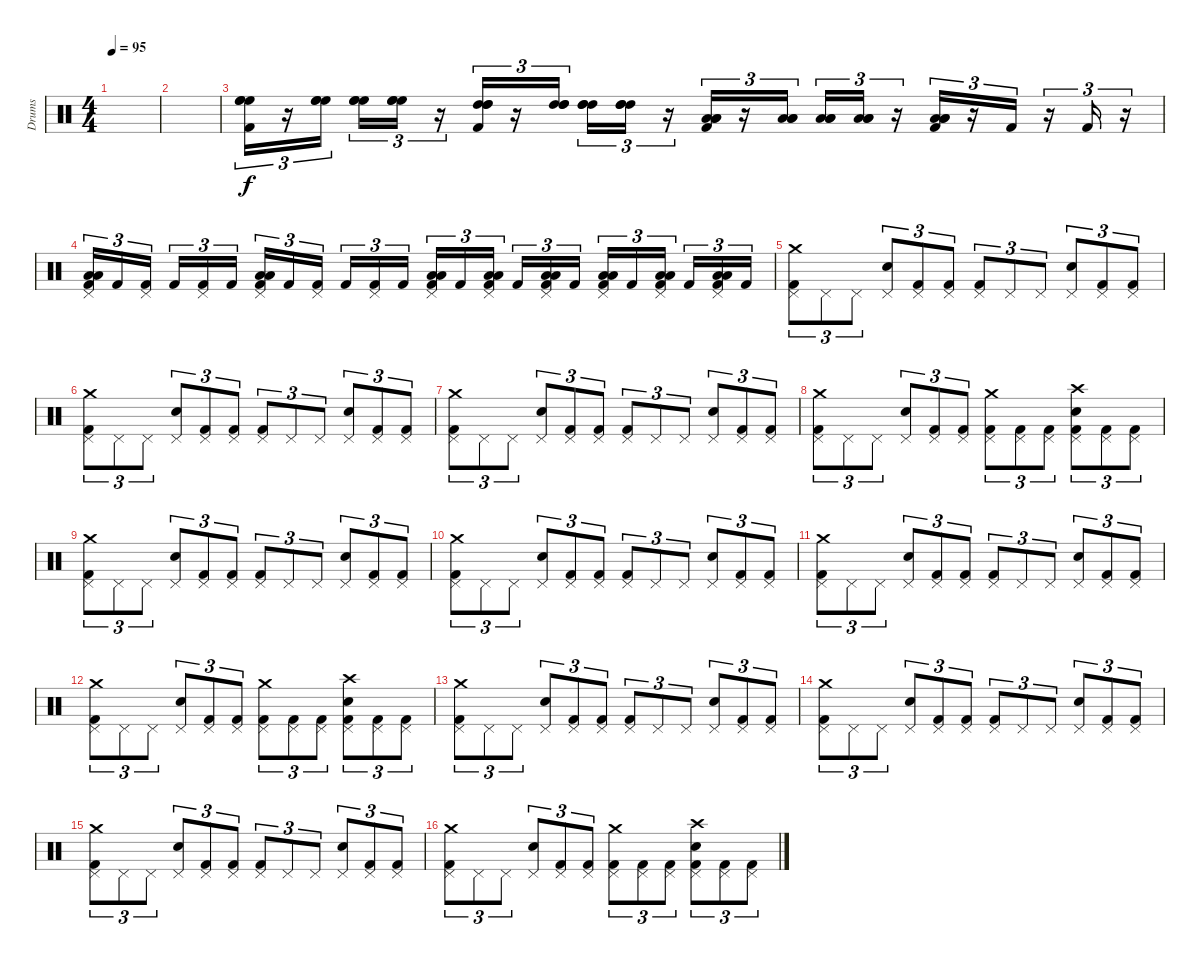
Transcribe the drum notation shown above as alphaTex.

\track ("Drums" "Drums") {instrument percussion}
\staff {score}
\articulation defaults
\ts (4 4)
\tempo 95
\clef neutral
\ks c
|
|
("Kick (hit) 2" "High Floor Tom (hit)" "High Floor Tom (hit)" "High Floor Tom (hit)").16{tu (3 2)} r.16{tu (3 2)} ("High Floor Tom (hit)" "High Floor Tom (hit)" "High Floor Tom (hit)").16{tu (3 2) beam splitsecondary} ("High Floor Tom (hit)" "High Floor Tom (hit)" "High Floor Tom (hit)").16{tu (3 2)} ("High Floor Tom (hit)" "High Floor Tom (hit)" "High Floor Tom (hit)").16{tu (3 2)} r.16{tu (3 2)} ("Kick (hit) 2" "High Tom (hit)" "High Tom (hit)" "High Tom (hit)").16{tu (3 2)} r.16{tu (3 2)} ("High Tom (hit)" "High Tom (hit)" "High Tom (hit)").16{tu (3 2) beam splitsecondary} ("High Tom (hit)" "High Tom (hit)" "High Tom (hit)").16{tu (3 2)} ("High Tom (hit)" "High Tom (hit)" "High Tom (hit)").16{tu (3 2)} r.16{tu (3 2)} ("Kick (hit) 2" "Low Tom (hit)" "Low Tom (hit)" "Low Tom (hit)").16{tu (3 2)} r.16{tu (3 2)} ("Low Tom (hit)" "Low Tom (hit)" "Low Tom (hit)").16{tu (3 2) beam splitsecondary} ("Low Tom (hit)" "Low Tom (hit)" "Low Tom (hit)").16{tu (3 2)} ("Low Tom (hit)" "Low Tom (hit)" "Low Tom (hit)").16{tu (3 2)} r.16{tu (3 2)} ("Kick (hit) 2" "Low Floor Tom (hit)" "Low Floor Tom (hit)" "Low Floor Tom (hit)").16{tu (3 2)} r.16{tu (3 2)} "Kick (hit) 2".16{tu (3 2)} r.16{tu (3 2)} "Kick (hit) 2".16{tu (3 2)} r.16{tu (3 2)} |
("Kick (hit) 2" "Low Tom (hit)" "Low Tom (hit)" "Pedal Hi-Hat (hit)").16{tu (3 2)} "Kick (hit) 2".16{tu (3 2)} ("Kick (hit) 2" "Pedal Hi-Hat (hit)").16{tu (3 2) beam splitsecondary} "Kick (hit) 2".16{tu (3 2)} ("Kick (hit) 2" "Pedal Hi-Hat (hit)").16{tu (3 2)} "Kick (hit) 2".16{tu (3 2)} ("Kick (hit) 2" "Low Tom (hit)" "Low Tom (hit)" "Pedal Hi-Hat (hit)").16{tu (3 2)} "Kick (hit) 2".16{tu (3 2)} ("Kick (hit) 2" "Pedal Hi-Hat (hit)").16{tu (3 2) beam splitsecondary} "Kick (hit) 2".16{tu (3 2)} ("Kick (hit) 2" "Pedal Hi-Hat (hit)").16{tu (3 2)} "Kick (hit) 2".16{tu (3 2)} ("Kick (hit) 2" "Low Tom (hit)" "Low Tom (hit)" "Pedal Hi-Hat (hit)").16{tu (3 2)} "Kick (hit) 2".16{tu (3 2)} ("Kick (hit) 2" "Low Tom (hit)" "Low Tom (hit)" "Pedal Hi-Hat (hit)").16{tu (3 2) beam splitsecondary} "Kick (hit) 2".16{tu (3 2)} ("Kick (hit) 2" "Low Tom (hit)" "Low Tom (hit)" "Pedal Hi-Hat (hit)").16{tu (3 2)} "Kick (hit) 2".16{tu (3 2)} ("Kick (hit) 2" "Low Floor Tom (hit)" "Low Floor Tom (hit)" "Pedal Hi-Hat (hit)").16{tu (3 2)} "Kick (hit) 2".16{tu (3 2)} ("Kick (hit) 2" "Low Floor Tom (hit)" "Low Floor Tom (hit)" "Pedal Hi-Hat (hit)").16{tu (3 2) beam splitsecondary} "Kick (hit) 2".16{tu (3 2)} ("Kick (hit) 2" "Low Floor Tom (hit)" "Low Floor Tom (hit)" "Pedal Hi-Hat (hit)").16{tu (3 2)} "Kick (hit) 2".16{tu (3 2)} |
("Kick (hit) 2" "Crash medium (hit)" "Pedal Hi-Hat (hit)").8{tu (3 2)} "Pedal Hi-Hat (hit)".8{tu (3 2)} "Pedal Hi-Hat (hit)".8{tu (3 2)} ("Snare (hit) 2" "Pedal Hi-Hat (hit)").8{tu (3 2)} ("Kick (hit) 2" "Pedal Hi-Hat (hit)").8{tu (3 2)} ("Kick (hit) 2" "Pedal Hi-Hat (hit)").8{tu (3 2)} ("Kick (hit) 2" "Pedal Hi-Hat (hit)").8{tu (3 2)} "Pedal Hi-Hat (hit)".8{tu (3 2)} "Pedal Hi-Hat (hit)".8{tu (3 2)} ("Snare (hit) 2" "Pedal Hi-Hat (hit)").8{tu (3 2)} ("Kick (hit) 2" "Pedal Hi-Hat (hit)").8{tu (3 2)} ("Kick (hit) 2" "Pedal Hi-Hat (hit)").8{tu (3 2)} |
("Kick (hit) 2" "Crash medium (hit)" "Pedal Hi-Hat (hit)").8{tu (3 2)} "Pedal Hi-Hat (hit)".8{tu (3 2)} "Pedal Hi-Hat (hit)".8{tu (3 2)} ("Snare (hit) 2" "Pedal Hi-Hat (hit)").8{tu (3 2)} ("Kick (hit) 2" "Pedal Hi-Hat (hit)").8{tu (3 2)} ("Kick (hit) 2" "Pedal Hi-Hat (hit)").8{tu (3 2)} ("Kick (hit) 2" "Pedal Hi-Hat (hit)").8{tu (3 2)} "Pedal Hi-Hat (hit)".8{tu (3 2)} "Pedal Hi-Hat (hit)".8{tu (3 2)} ("Snare (hit) 2" "Pedal Hi-Hat (hit)").8{tu (3 2)} ("Kick (hit) 2" "Pedal Hi-Hat (hit)").8{tu (3 2)} ("Kick (hit) 2" "Pedal Hi-Hat (hit)").8{tu (3 2)} |
("Kick (hit) 2" "Crash medium (hit)" "Pedal Hi-Hat (hit)").8{tu (3 2)} "Pedal Hi-Hat (hit)".8{tu (3 2)} "Pedal Hi-Hat (hit)".8{tu (3 2)} ("Snare (hit) 2" "Pedal Hi-Hat (hit)").8{tu (3 2)} ("Kick (hit) 2" "Pedal Hi-Hat (hit)").8{tu (3 2)} ("Kick (hit) 2" "Pedal Hi-Hat (hit)").8{tu (3 2)} ("Kick (hit) 2" "Pedal Hi-Hat (hit)").8{tu (3 2)} "Pedal Hi-Hat (hit)".8{tu (3 2)} "Pedal Hi-Hat (hit)".8{tu (3 2)} ("Snare (hit) 2" "Pedal Hi-Hat (hit)").8{tu (3 2)} ("Kick (hit) 2" "Pedal Hi-Hat (hit)").8{tu (3 2)} ("Kick (hit) 2" "Pedal Hi-Hat (hit)").8{tu (3 2)} |
("Kick (hit) 2" "Crash medium (hit)" "Pedal Hi-Hat (hit)").8{tu (3 2)} "Pedal Hi-Hat (hit)".8{tu (3 2)} "Pedal Hi-Hat (hit)".8{tu (3 2)} ("Snare (hit) 2" "Pedal Hi-Hat (hit)").8{tu (3 2)} ("Kick (hit) 2" "Pedal Hi-Hat (hit)").8{tu (3 2)} ("Kick (hit) 2" "Pedal Hi-Hat (hit)").8{tu (3 2)} ("Kick (hit) 2" "Crash medium (hit)" "Pedal Hi-Hat (hit)").8{tu (3 2)} ("Kick (hit) 2" "Pedal Hi-Hat (hit)").8{tu (3 2)} ("Kick (hit) 2" "Pedal Hi-Hat (hit)").8{tu (3 2)} ("Kick (hit) 2" "Crash high (hit)" "Snare (hit) 2" "Pedal Hi-Hat (hit)").8{tu (3 2)} ("Kick (hit) 2" "Pedal Hi-Hat (hit)").8{tu (3 2)} ("Kick (hit) 2" "Pedal Hi-Hat (hit)").8{tu (3 2)} |
("Kick (hit) 2" "Crash medium (hit)" "Pedal Hi-Hat (hit)").8{tu (3 2)} "Pedal Hi-Hat (hit)".8{tu (3 2)} "Pedal Hi-Hat (hit)".8{tu (3 2)} ("Snare (hit) 2" "Pedal Hi-Hat (hit)").8{tu (3 2)} ("Kick (hit) 2" "Pedal Hi-Hat (hit)").8{tu (3 2)} ("Kick (hit) 2" "Pedal Hi-Hat (hit)").8{tu (3 2)} ("Kick (hit) 2" "Pedal Hi-Hat (hit)").8{tu (3 2)} "Pedal Hi-Hat (hit)".8{tu (3 2)} "Pedal Hi-Hat (hit)".8{tu (3 2)} ("Snare (hit) 2" "Pedal Hi-Hat (hit)").8{tu (3 2)} ("Kick (hit) 2" "Pedal Hi-Hat (hit)").8{tu (3 2)} ("Kick (hit) 2" "Pedal Hi-Hat (hit)").8{tu (3 2)} |
("Kick (hit) 2" "Crash medium (hit)" "Pedal Hi-Hat (hit)").8{tu (3 2)} "Pedal Hi-Hat (hit)".8{tu (3 2)} "Pedal Hi-Hat (hit)".8{tu (3 2)} ("Snare (hit) 2" "Pedal Hi-Hat (hit)").8{tu (3 2)} ("Kick (hit) 2" "Pedal Hi-Hat (hit)").8{tu (3 2)} ("Kick (hit) 2" "Pedal Hi-Hat (hit)").8{tu (3 2)} ("Kick (hit) 2" "Pedal Hi-Hat (hit)").8{tu (3 2)} "Pedal Hi-Hat (hit)".8{tu (3 2)} "Pedal Hi-Hat (hit)".8{tu (3 2)} ("Snare (hit) 2" "Pedal Hi-Hat (hit)").8{tu (3 2)} ("Kick (hit) 2" "Pedal Hi-Hat (hit)").8{tu (3 2)} ("Kick (hit) 2" "Pedal Hi-Hat (hit)").8{tu (3 2)} |
("Kick (hit) 2" "Crash medium (hit)" "Pedal Hi-Hat (hit)").8{tu (3 2)} "Pedal Hi-Hat (hit)".8{tu (3 2)} "Pedal Hi-Hat (hit)".8{tu (3 2)} ("Snare (hit) 2" "Pedal Hi-Hat (hit)").8{tu (3 2)} ("Kick (hit) 2" "Pedal Hi-Hat (hit)").8{tu (3 2)} ("Kick (hit) 2" "Pedal Hi-Hat (hit)").8{tu (3 2)} ("Kick (hit) 2" "Pedal Hi-Hat (hit)").8{tu (3 2)} "Pedal Hi-Hat (hit)".8{tu (3 2)} "Pedal Hi-Hat (hit)".8{tu (3 2)} ("Snare (hit) 2" "Pedal Hi-Hat (hit)").8{tu (3 2)} ("Kick (hit) 2" "Pedal Hi-Hat (hit)").8{tu (3 2)} ("Kick (hit) 2" "Pedal Hi-Hat (hit)").8{tu (3 2)} |
("Kick (hit) 2" "Crash medium (hit)" "Pedal Hi-Hat (hit)").8{tu (3 2)} "Pedal Hi-Hat (hit)".8{tu (3 2)} "Pedal Hi-Hat (hit)".8{tu (3 2)} ("Snare (hit) 2" "Pedal Hi-Hat (hit)").8{tu (3 2)} ("Kick (hit) 2" "Pedal Hi-Hat (hit)").8{tu (3 2)} ("Kick (hit) 2" "Pedal Hi-Hat (hit)").8{tu (3 2)} ("Kick (hit) 2" "Crash medium (hit)" "Pedal Hi-Hat (hit)").8{tu (3 2)} ("Kick (hit) 2" "Pedal Hi-Hat (hit)").8{tu (3 2)} ("Kick (hit) 2" "Pedal Hi-Hat (hit)").8{tu (3 2)} ("Kick (hit) 2" "Crash high (hit)" "Snare (hit) 2" "Pedal Hi-Hat (hit)").8{tu (3 2)} ("Kick (hit) 2" "Pedal Hi-Hat (hit)").8{tu (3 2)} ("Kick (hit) 2" "Pedal Hi-Hat (hit)").8{tu (3 2)} |
("Kick (hit) 2" "Crash medium (hit)" "Pedal Hi-Hat (hit)").8{tu (3 2)} "Pedal Hi-Hat (hit)".8{tu (3 2)} "Pedal Hi-Hat (hit)".8{tu (3 2)} ("Snare (hit) 2" "Pedal Hi-Hat (hit)").8{tu (3 2)} ("Kick (hit) 2" "Pedal Hi-Hat (hit)").8{tu (3 2)} ("Kick (hit) 2" "Pedal Hi-Hat (hit)").8{tu (3 2)} ("Kick (hit) 2" "Pedal Hi-Hat (hit)").8{tu (3 2)} "Pedal Hi-Hat (hit)".8{tu (3 2)} "Pedal Hi-Hat (hit)".8{tu (3 2)} ("Snare (hit) 2" "Pedal Hi-Hat (hit)").8{tu (3 2)} ("Kick (hit) 2" "Pedal Hi-Hat (hit)").8{tu (3 2)} ("Kick (hit) 2" "Pedal Hi-Hat (hit)").8{tu (3 2)} |
("Kick (hit) 2" "Crash medium (hit)" "Pedal Hi-Hat (hit)").8{tu (3 2)} "Pedal Hi-Hat (hit)".8{tu (3 2)} "Pedal Hi-Hat (hit)".8{tu (3 2)} ("Snare (hit) 2" "Pedal Hi-Hat (hit)").8{tu (3 2)} ("Kick (hit) 2" "Pedal Hi-Hat (hit)").8{tu (3 2)} ("Kick (hit) 2" "Pedal Hi-Hat (hit)").8{tu (3 2)} ("Kick (hit) 2" "Pedal Hi-Hat (hit)").8{tu (3 2)} "Pedal Hi-Hat (hit)".8{tu (3 2)} "Pedal Hi-Hat (hit)".8{tu (3 2)} ("Snare (hit) 2" "Pedal Hi-Hat (hit)").8{tu (3 2)} ("Kick (hit) 2" "Pedal Hi-Hat (hit)").8{tu (3 2)} ("Kick (hit) 2" "Pedal Hi-Hat (hit)").8{tu (3 2)} |
("Kick (hit) 2" "Crash medium (hit)" "Pedal Hi-Hat (hit)").8{tu (3 2)} "Pedal Hi-Hat (hit)".8{tu (3 2)} "Pedal Hi-Hat (hit)".8{tu (3 2)} ("Snare (hit) 2" "Pedal Hi-Hat (hit)").8{tu (3 2)} ("Kick (hit) 2" "Pedal Hi-Hat (hit)").8{tu (3 2)} ("Kick (hit) 2" "Pedal Hi-Hat (hit)").8{tu (3 2)} ("Kick (hit) 2" "Pedal Hi-Hat (hit)").8{tu (3 2)} "Pedal Hi-Hat (hit)".8{tu (3 2)} "Pedal Hi-Hat (hit)".8{tu (3 2)} ("Snare (hit) 2" "Pedal Hi-Hat (hit)").8{tu (3 2)} ("Kick (hit) 2" "Pedal Hi-Hat (hit)").8{tu (3 2)} ("Kick (hit) 2" "Pedal Hi-Hat (hit)").8{tu (3 2)} |
("Kick (hit) 2" "Crash medium (hit)" "Pedal Hi-Hat (hit)").8{tu (3 2)} "Pedal Hi-Hat (hit)".8{tu (3 2)} "Pedal Hi-Hat (hit)".8{tu (3 2)} ("Snare (hit) 2" "Pedal Hi-Hat (hit)").8{tu (3 2)} ("Kick (hit) 2" "Pedal Hi-Hat (hit)").8{tu (3 2)} ("Kick (hit) 2" "Pedal Hi-Hat (hit)").8{tu (3 2)} ("Kick (hit) 2" "Crash medium (hit)" "Pedal Hi-Hat (hit)").8{tu (3 2)} ("Kick (hit) 2" "Pedal Hi-Hat (hit)").8{tu (3 2)} ("Kick (hit) 2" "Pedal Hi-Hat (hit)").8{tu (3 2)} ("Kick (hit) 2" "Crash high (hit)" "Snare (hit) 2" "Pedal Hi-Hat (hit)").8{tu (3 2)} ("Kick (hit) 2" "Pedal Hi-Hat (hit)").8{tu (3 2)} ("Kick (hit) 2" "Pedal Hi-Hat (hit)").8{tu (3 2)}
